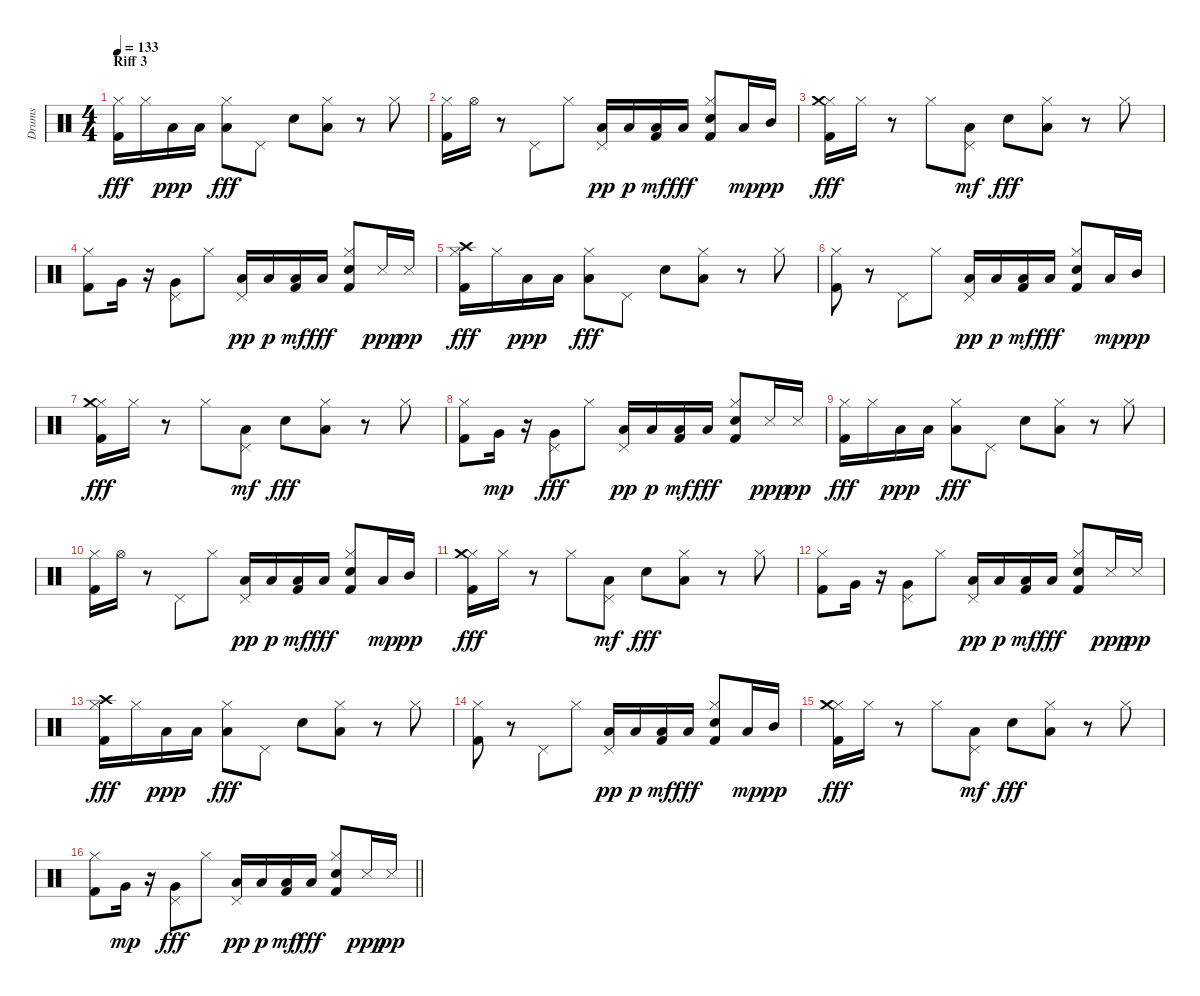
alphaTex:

\track ("Drums" "Drums") {instrument percussion}
\staff {score}
\articulation defaults
\ts (4 4)
\section ("" "Riff 3")
\tempo 133
\clef neutral
\ks c
("Kick (hit) 2" "Hi-Hat (closed)").16{dy fff} "Hi-Hat (closed)".16 "Low Tom (hit)".16{dy ppp} "Low Tom (hit)".16 ("Hi-Hat (closed)" "Low Tom (hit)").8{dy fff} "Pedal Hi-Hat (hit)".8 "Snare (hit) 2".8 ("Hi-Hat (closed)" "Low Tom (hit)").8 r.8 "Hi-Hat (closed)".8 |
("Kick (hit) 2" "Hi-Hat (closed)").16 "Hi-Hat (open)".16 r.8 "Pedal Hi-Hat (hit)".8 "Hi-Hat (closed)".8 ("Pedal Hi-Hat (hit)" "Low Tom (hit)").16{dy pp} "Low Tom (hit)".16{dy p} ("Kick (hit) 2" "Low Tom (hit)").16{dy mf} "Low Tom (hit)".16{dy fff} ("Kick (hit) 2" "Snare (hit) 2" "Hi-Hat (closed)").8 "Low Tom (hit)".16{dy mp} "Mid Tom (hit)".16{dy pp} |
("Kick (hit) 2" "Hi-Hat (closed)" "Crash medium (hit)").16{dy fff} "Hi-Hat (closed)".16 r.8 "Hi-Hat (closed)".8 ("Pedal Hi-Hat (hit)" "Low Tom (hit)").8{dy mf} "Snare (hit) 2".8{dy fff} ("Hi-Hat (closed)" "Low Tom (hit)").8 r.8 "Hi-Hat (closed)".8 |
("Kick (hit) 2" "Hi-Hat (closed)").8 "Very Low Tom (hit)".16 r.16 ("Pedal Hi-Hat (hit)" "Very Low Tom (hit)").8 "Hi-Hat (closed)".8 ("Pedal Hi-Hat (hit)" "Low Tom (hit)").16{dy pp} "Low Tom (hit)".16{dy p} ("Kick (hit) 2" "Low Tom (hit)").16{dy mf} "Low Tom (hit)".16{dy fff} ("Kick (hit) 2" "Snare (hit) 2" "Hi-Hat (closed)").8 "Snare (side stick) 3".16{dy ppp} "Snare (side stick) 3".16{dy pp} |
("Kick (hit) 2" "Hi-Hat (closed)" "Crash high (hit)").16{dy fff} "Hi-Hat (closed)".16 "Low Tom (hit)".16{dy ppp} "Low Tom (hit)".16 ("Hi-Hat (closed)" "Low Tom (hit)").8{dy fff} "Pedal Hi-Hat (hit)".8 "Snare (hit) 2".8 ("Hi-Hat (closed)" "Low Tom (hit)").8 r.8 "Hi-Hat (closed)".8 |
("Kick (hit) 2" "Hi-Hat (closed)").8 r.8 "Pedal Hi-Hat (hit)".8 "Hi-Hat (closed)".8 ("Pedal Hi-Hat (hit)" "Low Tom (hit)").16{dy pp} "Low Tom (hit)".16{dy p} ("Kick (hit) 2" "Low Tom (hit)").16{dy mf} "Low Tom (hit)".16{dy fff} ("Kick (hit) 2" "Snare (hit) 2" "Hi-Hat (closed)").8 "Low Tom (hit)".16{dy mp} "Mid Tom (hit)".16{dy pp} |
("Kick (hit) 2" "Hi-Hat (closed)" "Crash medium (hit)").16{dy fff} "Hi-Hat (closed)".16 r.8 "Hi-Hat (closed)".8 ("Pedal Hi-Hat (hit)" "Low Tom (hit)").8{dy mf} "Snare (hit) 2".8{dy fff} ("Hi-Hat (closed)" "Low Tom (hit)").8 r.8 "Hi-Hat (closed)".8 |
("Kick (hit) 2" "Hi-Hat (closed)").8 "Very Low Tom (hit)".16{dy mp} r.16 ("Pedal Hi-Hat (hit)" "Very Low Tom (hit)").8{dy fff} "Hi-Hat (closed)".8 ("Pedal Hi-Hat (hit)" "Low Tom (hit)").16{dy pp} "Low Tom (hit)".16{dy p} ("Kick (hit) 2" "Low Tom (hit)").16{dy mf} "Low Tom (hit)".16{dy fff} ("Kick (hit) 2" "Snare (hit) 2" "Hi-Hat (closed)").8 "Snare (side stick) 3".16{dy ppp} "Snare (side stick) 3".16{dy pp} |
("Kick (hit) 2" "Hi-Hat (closed)").16{dy fff} "Hi-Hat (closed)".16 "Low Tom (hit)".16{dy ppp} "Low Tom (hit)".16 ("Hi-Hat (closed)" "Low Tom (hit)").8{dy fff} "Pedal Hi-Hat (hit)".8 "Snare (hit) 2".8 ("Hi-Hat (closed)" "Low Tom (hit)").8 r.8 "Hi-Hat (closed)".8 |
("Kick (hit) 2" "Hi-Hat (closed)").16 "Hi-Hat (open)".16 r.8 "Pedal Hi-Hat (hit)".8 "Hi-Hat (closed)".8 ("Pedal Hi-Hat (hit)" "Low Tom (hit)").16{dy pp} "Low Tom (hit)".16{dy p} ("Kick (hit) 2" "Low Tom (hit)").16{dy mf} "Low Tom (hit)".16{dy fff} ("Kick (hit) 2" "Snare (hit) 2" "Hi-Hat (closed)").8 "Low Tom (hit)".16{dy mp} "Mid Tom (hit)".16{dy pp} |
("Kick (hit) 2" "Hi-Hat (closed)" "Crash medium (hit)").16{dy fff} "Hi-Hat (closed)".16 r.8 "Hi-Hat (closed)".8 ("Pedal Hi-Hat (hit)" "Low Tom (hit)").8{dy mf} "Snare (hit) 2".8{dy fff} ("Hi-Hat (closed)" "Low Tom (hit)").8 r.8 "Hi-Hat (closed)".8 |
("Kick (hit) 2" "Hi-Hat (closed)").8 "Very Low Tom (hit)".16 r.16 ("Pedal Hi-Hat (hit)" "Very Low Tom (hit)").8 "Hi-Hat (closed)".8 ("Pedal Hi-Hat (hit)" "Low Tom (hit)").16{dy pp} "Low Tom (hit)".16{dy p} ("Kick (hit) 2" "Low Tom (hit)").16{dy mf} "Low Tom (hit)".16{dy fff} ("Kick (hit) 2" "Snare (hit) 2" "Hi-Hat (closed)").8 "Snare (side stick) 3".16{dy ppp} "Snare (side stick) 3".16{dy pp} |
("Kick (hit) 2" "Hi-Hat (closed)" "Crash high (hit)").16{dy fff} "Hi-Hat (closed)".16 "Low Tom (hit)".16{dy ppp} "Low Tom (hit)".16 ("Hi-Hat (closed)" "Low Tom (hit)").8{dy fff} "Pedal Hi-Hat (hit)".8 "Snare (hit) 2".8 ("Hi-Hat (closed)" "Low Tom (hit)").8 r.8 "Hi-Hat (closed)".8 |
("Kick (hit) 2" "Hi-Hat (closed)").8 r.8 "Pedal Hi-Hat (hit)".8 "Hi-Hat (closed)".8 ("Pedal Hi-Hat (hit)" "Low Tom (hit)").16{dy pp} "Low Tom (hit)".16{dy p} ("Kick (hit) 2" "Low Tom (hit)").16{dy mf} "Low Tom (hit)".16{dy fff} ("Kick (hit) 2" "Snare (hit) 2" "Hi-Hat (closed)").8 "Low Tom (hit)".16{dy mp} "Mid Tom (hit)".16{dy pp} |
("Kick (hit) 2" "Hi-Hat (closed)" "Crash medium (hit)").16{dy fff} "Hi-Hat (closed)".16 r.8 "Hi-Hat (closed)".8 ("Pedal Hi-Hat (hit)" "Low Tom (hit)").8{dy mf} "Snare (hit) 2".8{dy fff} ("Hi-Hat (closed)" "Low Tom (hit)").8 r.8 "Hi-Hat (closed)".8 |
\barLineRight lightlight
("Kick (hit) 2" "Hi-Hat (closed)").8 "Very Low Tom (hit)".16{dy mp} r.16 ("Pedal Hi-Hat (hit)" "Very Low Tom (hit)").8{dy fff} "Hi-Hat (closed)".8 ("Pedal Hi-Hat (hit)" "Low Tom (hit)").16{dy pp} "Low Tom (hit)".16{dy p} ("Kick (hit) 2" "Low Tom (hit)").16{dy mf} "Low Tom (hit)".16{dy fff} ("Kick (hit) 2" "Snare (hit) 2" "Hi-Hat (closed)").8 "Snare (side stick) 3".16{dy ppp} "Snare (side stick) 3".16{dy pp}
